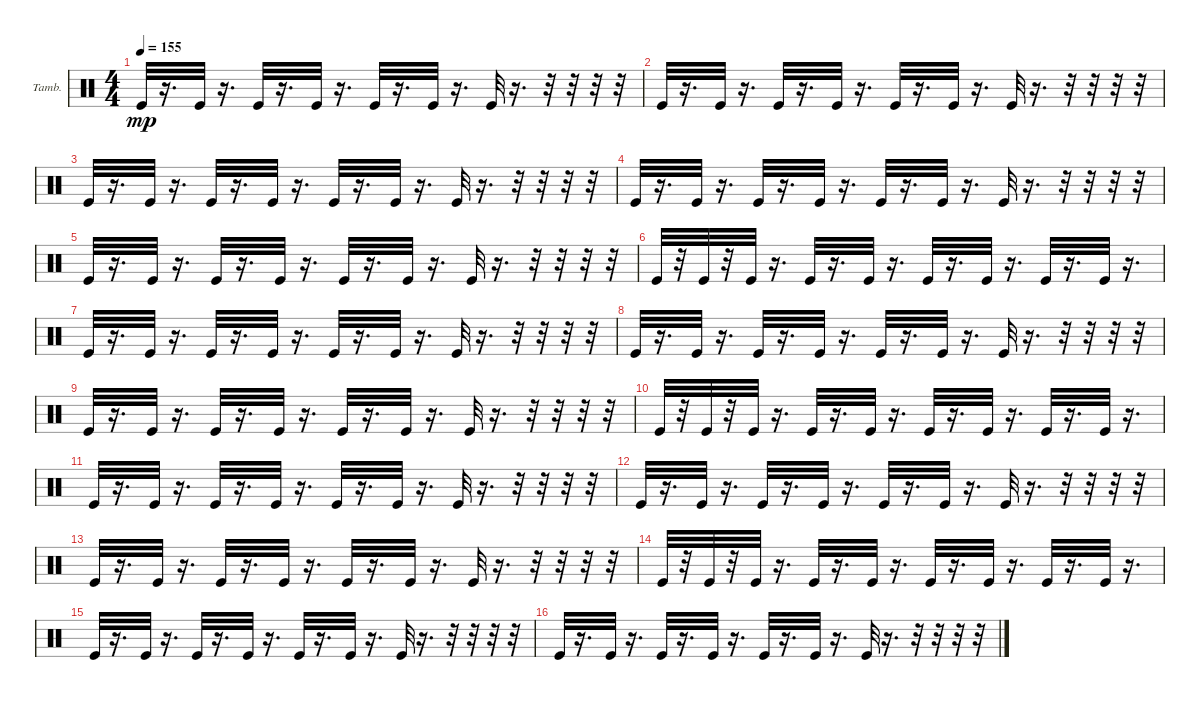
\bracketExtendMode groupsimilarinstruments
\firstSystemTrackNameOrientation horizontal
\otherSystemsTrackNameOrientation horizontal
\track ("Е. Кулаков" "Tamb.") {instrument percussion}
\staff {score}
\articulation defaults
\ts (4 4)
\tempo 155
\clef neutral
\ks c "Kick (hit)".32{dy mp}
r.16{d} "Kick (hit)".32 r.16{d} "Kick (hit)".32 r.16{d} "Kick (hit)".32 r.16{d} "Kick (hit)".32 r.16{d} "Kick (hit)".32 r.16{d} "Kick (hit)".32 r.16{d} r.32 r.32 r.32 r.32 |
"Kick (hit)".32 r.16{d} "Kick (hit)".32 r.16{d} "Kick (hit)".32 r.16{d} "Kick (hit)".32 r.16{d} "Kick (hit)".32 r.16{d} "Kick (hit)".32 r.16{d} "Kick (hit)".32 r.16{d} r.32 r.32 r.32 r.32 |
"Kick (hit)".32 r.16{d} "Kick (hit)".32 r.16{d} "Kick (hit)".32 r.16{d} "Kick (hit)".32 r.16{d} "Kick (hit)".32 r.16{d} "Kick (hit)".32 r.16{d} "Kick (hit)".32 r.16{d} r.32 r.32 r.32 r.32 |
"Kick (hit)".32 r.16{d} "Kick (hit)".32 r.16{d} "Kick (hit)".32 r.16{d} "Kick (hit)".32 r.16{d} "Kick (hit)".32 r.16{d} "Kick (hit)".32 r.16{d} "Kick (hit)".32 r.16{d} r.32 r.32 r.32 r.32 |
"Kick (hit)".32 r.16{d} "Kick (hit)".32 r.16{d} "Kick (hit)".32 r.16{d} "Kick (hit)".32 r.16{d} "Kick (hit)".32 r.16{d} "Kick (hit)".32 r.16{d} "Kick (hit)".32 r.16{d} r.32 r.32 r.32 r.32 |
"Kick (hit)".32 r.32 "Kick (hit)".32 r.32 "Kick (hit)".32 r.16{d} "Kick (hit)".32 r.16{d} "Kick (hit)".32 r.16{d} "Kick (hit)".32 r.16{d} "Kick (hit)".32 r.16{d} "Kick (hit)".32 r.16{d} "Kick (hit)".32 r.16{d} |
"Kick (hit)".32 r.16{d} "Kick (hit)".32 r.16{d} "Kick (hit)".32 r.16{d} "Kick (hit)".32 r.16{d} "Kick (hit)".32 r.16{d} "Kick (hit)".32 r.16{d} "Kick (hit)".32 r.16{d} r.32 r.32 r.32 r.32 |
"Kick (hit)".32 r.16{d} "Kick (hit)".32 r.16{d} "Kick (hit)".32 r.16{d} "Kick (hit)".32 r.16{d} "Kick (hit)".32 r.16{d} "Kick (hit)".32 r.16{d} "Kick (hit)".32 r.16{d} r.32 r.32 r.32 r.32 |
"Kick (hit)".32 r.16{d} "Kick (hit)".32 r.16{d} "Kick (hit)".32 r.16{d} "Kick (hit)".32 r.16{d} "Kick (hit)".32 r.16{d} "Kick (hit)".32 r.16{d} "Kick (hit)".32 r.16{d} r.32 r.32 r.32 r.32 |
"Kick (hit)".32 r.32 "Kick (hit)".32 r.32 "Kick (hit)".32 r.16{d} "Kick (hit)".32 r.16{d} "Kick (hit)".32 r.16{d} "Kick (hit)".32 r.16{d} "Kick (hit)".32 r.16{d} "Kick (hit)".32 r.16{d} "Kick (hit)".32 r.16{d} |
"Kick (hit)".32 r.16{d} "Kick (hit)".32 r.16{d} "Kick (hit)".32 r.16{d} "Kick (hit)".32 r.16{d} "Kick (hit)".32 r.16{d} "Kick (hit)".32 r.16{d} "Kick (hit)".32 r.16{d} r.32 r.32 r.32 r.32 |
"Kick (hit)".32 r.16{d} "Kick (hit)".32 r.16{d} "Kick (hit)".32 r.16{d} "Kick (hit)".32 r.16{d} "Kick (hit)".32 r.16{d} "Kick (hit)".32 r.16{d} "Kick (hit)".32 r.16{d} r.32 r.32 r.32 r.32 |
"Kick (hit)".32 r.16{d} "Kick (hit)".32 r.16{d} "Kick (hit)".32 r.16{d} "Kick (hit)".32 r.16{d} "Kick (hit)".32 r.16{d} "Kick (hit)".32 r.16{d} "Kick (hit)".32 r.16{d} r.32 r.32 r.32 r.32 |
"Kick (hit)".32 r.32 "Kick (hit)".32 r.32 "Kick (hit)".32 r.16{d} "Kick (hit)".32 r.16{d} "Kick (hit)".32 r.16{d} "Kick (hit)".32 r.16{d} "Kick (hit)".32 r.16{d} "Kick (hit)".32 r.16{d} "Kick (hit)".32 r.16{d} |
"Kick (hit)".32 r.16{d} "Kick (hit)".32 r.16{d} "Kick (hit)".32 r.16{d} "Kick (hit)".32 r.16{d} "Kick (hit)".32 r.16{d} "Kick (hit)".32 r.16{d} "Kick (hit)".32 r.16{d} r.32 r.32 r.32 r.32 |
"Kick (hit)".32 r.16{d} "Kick (hit)".32 r.16{d} "Kick (hit)".32 r.16{d} "Kick (hit)".32 r.16{d} "Kick (hit)".32 r.16{d} "Kick (hit)".32 r.16{d} "Kick (hit)".32 r.16{d} r.32 r.32 r.32 r.32
